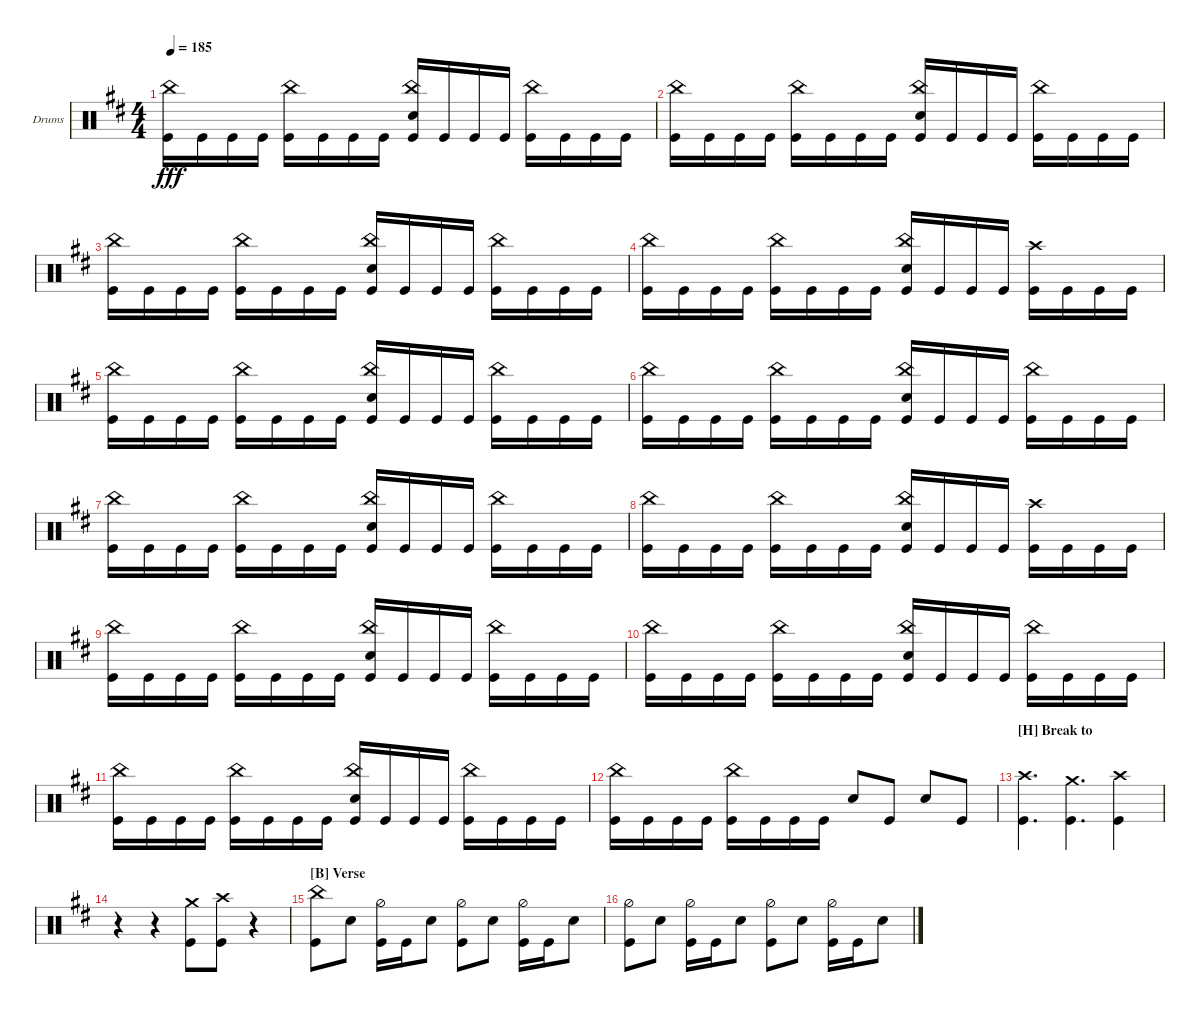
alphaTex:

\defaultSystemsLayout 4
\bracketExtendMode groupsimilarinstruments
\firstSystemTrackNameOrientation horizontal
\otherSystemsTrackNameOrientation horizontal
\track ("Drumkit" "Drums") {instrument percussion}
\staff {score}
\articulation defaults
\ts (4 4)
\tempo 185
\clef neutral
\ks bminor
("Kick (hit)" "China (hit)").16{dy fff} "Kick (hit)".16 "Kick (hit)".16 "Kick (hit)".16 ("Kick (hit)" "China (hit)").16 "Kick (hit)".16 "Kick (hit)".16 "Kick (hit)".16 ("Kick (hit)" "China (hit)" "Snare (hit) 2").16 "Kick (hit)".16 "Kick (hit)".16 "Kick (hit)".16 ("Kick (hit)" "China (hit)").16 "Kick (hit)".16 "Kick (hit)".16 "Kick (hit)".16 |
("Kick (hit)" "China (hit)").16 "Kick (hit)".16 "Kick (hit)".16 "Kick (hit)".16 ("Kick (hit)" "China (hit)").16 "Kick (hit)".16 "Kick (hit)".16 "Kick (hit)".16 ("Kick (hit)" "China (hit)" "Snare (hit) 2").16 "Kick (hit)".16 "Kick (hit)".16 "Kick (hit)".16 ("Kick (hit)" "China (hit)").16 "Kick (hit)".16 "Kick (hit)".16 "Kick (hit)".16 |
("Kick (hit)" "China (hit)").16 "Kick (hit)".16 "Kick (hit)".16 "Kick (hit)".16 ("Kick (hit)" "China (hit)").16 "Kick (hit)".16 "Kick (hit)".16 "Kick (hit)".16 ("Kick (hit)" "China (hit)" "Snare (hit) 2").16 "Kick (hit)".16 "Kick (hit)".16 "Kick (hit)".16 ("Kick (hit)" "China (hit)").16 "Kick (hit)".16 "Kick (hit)".16 "Kick (hit)".16 |
("Kick (hit)" "China (hit)").16 "Kick (hit)".16 "Kick (hit)".16 "Kick (hit)".16 ("Kick (hit)" "China (hit)").16 "Kick (hit)".16 "Kick (hit)".16 "Kick (hit)".16 ("Kick (hit)" "China (hit)" "Snare (hit) 2").16 "Kick (hit)".16 "Kick (hit)".16 "Kick (hit)".16 ("Kick (hit)" "Crash high (hit)").16 "Kick (hit)".16 "Kick (hit)".16 "Kick (hit)".16 |
("Kick (hit)" "China (hit)").16 "Kick (hit)".16 "Kick (hit)".16 "Kick (hit)".16 ("Kick (hit)" "China (hit)").16 "Kick (hit)".16 "Kick (hit)".16 "Kick (hit)".16 ("Kick (hit)" "China (hit)" "Snare (hit) 2").16 "Kick (hit)".16 "Kick (hit)".16 "Kick (hit)".16 ("Kick (hit)" "China (hit)").16 "Kick (hit)".16 "Kick (hit)".16 "Kick (hit)".16 |
("Kick (hit)" "China (hit)").16 "Kick (hit)".16 "Kick (hit)".16 "Kick (hit)".16 ("Kick (hit)" "China (hit)").16 "Kick (hit)".16 "Kick (hit)".16 "Kick (hit)".16 ("Kick (hit)" "China (hit)" "Snare (hit) 2").16 "Kick (hit)".16 "Kick (hit)".16 "Kick (hit)".16 ("Kick (hit)" "China (hit)").16 "Kick (hit)".16 "Kick (hit)".16 "Kick (hit)".16 |
("Kick (hit)" "China (hit)").16 "Kick (hit)".16 "Kick (hit)".16 "Kick (hit)".16 ("Kick (hit)" "China (hit)").16 "Kick (hit)".16 "Kick (hit)".16 "Kick (hit)".16 ("Kick (hit)" "China (hit)" "Snare (hit) 2").16 "Kick (hit)".16 "Kick (hit)".16 "Kick (hit)".16 ("Kick (hit)" "China (hit)").16 "Kick (hit)".16 "Kick (hit)".16 "Kick (hit)".16 |
("Kick (hit)" "China (hit)").16 "Kick (hit)".16 "Kick (hit)".16 "Kick (hit)".16 ("Kick (hit)" "China (hit)").16 "Kick (hit)".16 "Kick (hit)".16 "Kick (hit)".16 ("Kick (hit)" "China (hit)" "Snare (hit) 2").16 "Kick (hit)".16 "Kick (hit)".16 "Kick (hit)".16 ("Kick (hit)" "Crash high (hit)").16 "Kick (hit)".16 "Kick (hit)".16 "Kick (hit)".16 |
("Kick (hit)" "China (hit)").16 "Kick (hit)".16 "Kick (hit)".16 "Kick (hit)".16 ("Kick (hit)" "China (hit)").16 "Kick (hit)".16 "Kick (hit)".16 "Kick (hit)".16 ("Kick (hit)" "China (hit)" "Snare (hit) 2").16 "Kick (hit)".16 "Kick (hit)".16 "Kick (hit)".16 ("Kick (hit)" "China (hit)").16 "Kick (hit)".16 "Kick (hit)".16 "Kick (hit)".16 |
("Kick (hit)" "China (hit)").16 "Kick (hit)".16 "Kick (hit)".16 "Kick (hit)".16 ("Kick (hit)" "China (hit)").16 "Kick (hit)".16 "Kick (hit)".16 "Kick (hit)".16 ("Kick (hit)" "China (hit)" "Snare (hit) 2").16 "Kick (hit)".16 "Kick (hit)".16 "Kick (hit)".16 ("Kick (hit)" "China (hit)").16 "Kick (hit)".16 "Kick (hit)".16 "Kick (hit)".16 |
("Kick (hit)" "China (hit)").16 "Kick (hit)".16 "Kick (hit)".16 "Kick (hit)".16 ("Kick (hit)" "China (hit)").16 "Kick (hit)".16 "Kick (hit)".16 "Kick (hit)".16 ("Kick (hit)" "China (hit)" "Snare (hit) 2").16 "Kick (hit)".16 "Kick (hit)".16 "Kick (hit)".16 ("Kick (hit)" "China (hit)").16 "Kick (hit)".16 "Kick (hit)".16 "Kick (hit)".16 |
("Kick (hit)" "China (hit)").16 "Kick (hit)".16 "Kick (hit)".16 "Kick (hit)".16 ("Kick (hit)" "China (hit)").16 "Kick (hit)".16 "Kick (hit)".16 "Kick (hit)".16 "Snare (hit) 2".8 "Kick (hit)".8 "Snare (hit) 2".8 "Kick (hit)".8 |
\section ("H" "Break to ")
("Kick (hit)" "Crash high (hit)").4{d} ("Kick (hit)" "Crash medium (hit)").4{d} ("Kick (hit)" "Crash high (hit)").4 |
r.4 r.4 ("Kick (hit)" "Crash medium (hit)").8 ("Crash high (hit)" "Kick (hit)").8 r.4 |
\section ("B" "Verse")
("Kick (hit)" "China (hit)").8 "Snare (hit) 2".8 ("Kick (hit)" "Hi-Hat (half)").16 "Kick (hit)".16 "Snare (hit) 2".8 ("Hi-Hat (half)" "Kick (hit)").8 "Snare (hit) 2".8 ("Kick (hit)" "Hi-Hat (half)").16 "Kick (hit)".16 "Snare (hit) 2".8 |
("Hi-Hat (half)" "Kick (hit)").8 "Snare (hit) 2".8 ("Kick (hit)" "Hi-Hat (half)").16 "Kick (hit)".16 "Snare (hit) 2".8 ("Hi-Hat (half)" "Kick (hit)").8 "Snare (hit) 2".8 ("Kick (hit)" "Hi-Hat (half)").16 "Kick (hit)".16 "Snare (hit) 2".8
